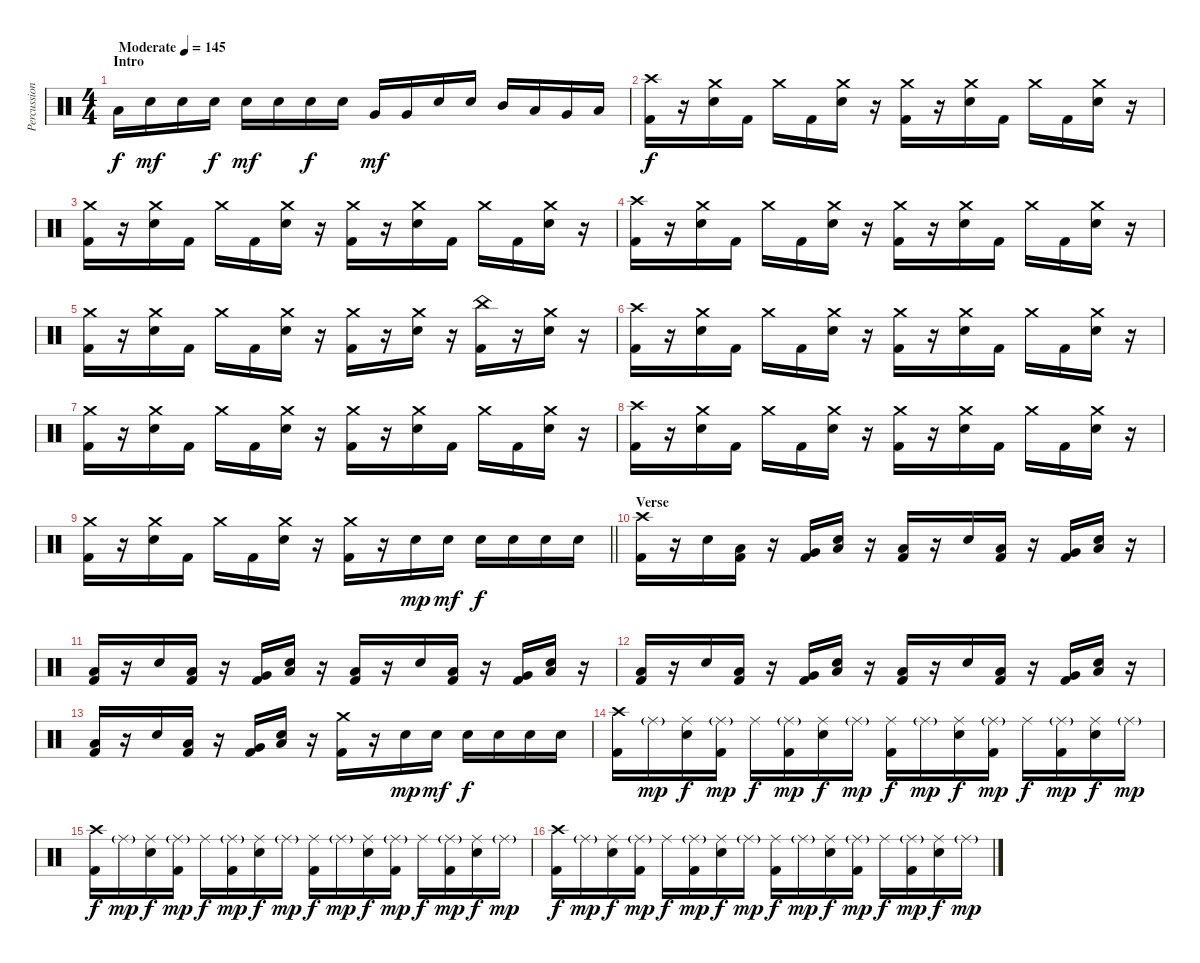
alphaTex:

\track ("Percussion" "Percussion") {instrument percussion}
\staff {score}
\articulation defaults
\ts (4 4)
\section ("" "Intro")
\tempo (145 "Moderate")
\clef neutral
\ks c "Low Floor Tom (hit)".16{dy f} "Electric Snare (hit)".16{dy mf} "Electric Snare (hit)".16 "Electric Snare (hit)".16{dy f} "Electric Snare (hit)".16{dy mf} "Electric Snare (hit)".16 "Electric Snare (hit)".16{dy f} "Electric Snare (hit)".16 "Very Low Tom (hit)".16{dy mf} "Very Low Tom (hit)".16 "Electric Snare (hit)".16 "Electric Snare (hit)".16 "Mid Tom (hit)".16 "Low Tom (hit)".16 "Very Low Tom (hit)".16 "Low Floor Tom (hit)".16
|
("Crash high (hit)" "Kick (hit) 2").16{dy f} r.16 ("Crash medium (hit)" "Electric Snare (hit)").16 "Kick (hit) 2".16 "Crash medium (hit)".16 "Kick (hit) 2".16 ("Crash medium (hit)" "Electric Snare (hit)").16 r.16 ("Crash medium (hit)" "Kick (hit) 2").16 r.16 ("Crash medium (hit)" "Electric Snare (hit)").16 "Kick (hit) 2".16 "Crash medium (hit)".16 "Kick (hit) 2".16 ("Crash medium (hit)" "Electric Snare (hit)").16 r.16 |
("Crash medium (hit)" "Kick (hit) 2").16 r.16 ("Crash medium (hit)" "Electric Snare (hit)").16 "Kick (hit) 2".16 "Crash medium (hit)".16 "Kick (hit) 2".16 ("Crash medium (hit)" "Electric Snare (hit)").16 r.16 ("Crash medium (hit)" "Kick (hit) 2").16 r.16 ("Crash medium (hit)" "Electric Snare (hit)").16 "Kick (hit) 2".16 "Crash medium (hit)".16 "Kick (hit) 2".16 ("Crash medium (hit)" "Electric Snare (hit)").16 r.16 |
("Crash high (hit)" "Kick (hit) 2").16 r.16 ("Crash medium (hit)" "Electric Snare (hit)").16 "Kick (hit) 2".16 "Crash medium (hit)".16 "Kick (hit) 2".16 ("Crash medium (hit)" "Electric Snare (hit)").16 r.16 ("Crash medium (hit)" "Kick (hit) 2").16 r.16 ("Crash medium (hit)" "Electric Snare (hit)").16 "Kick (hit) 2".16 "Crash medium (hit)".16 "Kick (hit) 2".16 ("Crash medium (hit)" "Electric Snare (hit)").16 r.16 |
("Crash medium (hit)" "Kick (hit) 2").16 r.16 ("Crash medium (hit)" "Electric Snare (hit)").16 "Kick (hit) 2".16 "Crash medium (hit)".16 "Kick (hit) 2".16 ("Crash medium (hit)" "Electric Snare (hit)").16 r.16 ("Crash medium (hit)" "Kick (hit) 2").16 r.16 ("Crash medium (hit)" "Electric Snare (hit)").16 r.16 ("China (hit)" "Kick (hit) 2").16 r.16 ("Crash medium (hit)" "Electric Snare (hit)").16 r.16 |
("Crash high (hit)" "Kick (hit) 2").16 r.16 ("Crash medium (hit)" "Electric Snare (hit)").16 "Kick (hit) 2".16 "Crash medium (hit)".16 "Kick (hit) 2".16 ("Crash medium (hit)" "Electric Snare (hit)").16 r.16 ("Crash medium (hit)" "Kick (hit) 2").16 r.16 ("Crash medium (hit)" "Electric Snare (hit)").16 "Kick (hit) 2".16 "Crash medium (hit)".16 "Kick (hit) 2".16 ("Crash medium (hit)" "Electric Snare (hit)").16 r.16 |
("Crash medium (hit)" "Kick (hit) 2").16 r.16 ("Crash medium (hit)" "Electric Snare (hit)").16 "Kick (hit) 2".16 "Crash medium (hit)".16 "Kick (hit) 2".16 ("Crash medium (hit)" "Electric Snare (hit)").16 r.16 ("Crash medium (hit)" "Kick (hit) 2").16 r.16 ("Crash medium (hit)" "Electric Snare (hit)").16 "Kick (hit) 2".16 "Crash medium (hit)".16 "Kick (hit) 2".16 ("Crash medium (hit)" "Electric Snare (hit)").16 r.16 |
("Crash high (hit)" "Kick (hit) 2").16 r.16 ("Crash medium (hit)" "Electric Snare (hit)").16 "Kick (hit) 2".16 "Crash medium (hit)".16 "Kick (hit) 2".16 ("Crash medium (hit)" "Electric Snare (hit)").16 r.16 ("Crash medium (hit)" "Kick (hit) 2").16 r.16 ("Crash medium (hit)" "Electric Snare (hit)").16 "Kick (hit) 2".16 "Crash medium (hit)".16 "Kick (hit) 2".16 ("Crash medium (hit)" "Electric Snare (hit)").16 r.16 |
\barLineRight lightlight
("Crash medium (hit)" "Kick (hit) 2").16 r.16 ("Crash medium (hit)" "Electric Snare (hit)").16 "Kick (hit) 2".16 "Crash medium (hit)".16 "Kick (hit) 2".16 ("Crash medium (hit)" "Electric Snare (hit)").16 r.16 ("Crash medium (hit)" "Kick (hit) 2").16 r.16 "Electric Snare (hit)".16{dy mp} "Electric Snare (hit)".16{dy mf} "Electric Snare (hit)".16{dy f} "Electric Snare (hit)".16 "Electric Snare (hit)".16 "Electric Snare (hit)".16 |
\section ("" "Verse")
("Crash high (hit)" "Kick (hit) 2").16 r.16 "Electric Snare (hit)".16 ("Low Tom (hit)" "Kick (hit) 2").16 r.16 ("Very Low Tom (hit)" "Kick (hit) 2").16 ("Low Floor Tom (hit)" "Electric Snare (hit)").16 r.16 ("Low Floor Tom (hit)" "Kick (hit) 2").16 r.16 "Electric Snare (hit)".16 ("Low Tom (hit)" "Kick (hit) 2").16 r.16 ("Very Low Tom (hit)" "Kick (hit) 2").16 ("Low Floor Tom (hit)" "Electric Snare (hit)").16 r.16 |
("Low Floor Tom (hit)" "Kick (hit) 2").16 r.16 "Electric Snare (hit)".16 ("Low Tom (hit)" "Kick (hit) 2").16 r.16 ("Very Low Tom (hit)" "Kick (hit) 2").16 ("Low Floor Tom (hit)" "Electric Snare (hit)").16 r.16 ("Low Floor Tom (hit)" "Kick (hit) 2").16 r.16 "Electric Snare (hit)".16 ("Low Tom (hit)" "Kick (hit) 2").16 r.16 ("Very Low Tom (hit)" "Kick (hit) 2").16 ("Low Floor Tom (hit)" "Electric Snare (hit)").16 r.16 |
("Low Floor Tom (hit)" "Kick (hit) 2").16 r.16 "Electric Snare (hit)".16 ("Low Tom (hit)" "Kick (hit) 2").16 r.16 ("Very Low Tom (hit)" "Kick (hit) 2").16 ("Low Floor Tom (hit)" "Electric Snare (hit)").16 r.16 ("Low Floor Tom (hit)" "Kick (hit) 2").16 r.16 "Electric Snare (hit)".16 ("Low Tom (hit)" "Kick (hit) 2").16 r.16 ("Very Low Tom (hit)" "Kick (hit) 2").16 ("Low Floor Tom (hit)" "Electric Snare (hit)").16 r.16 |
("Low Floor Tom (hit)" "Kick (hit) 2").16 r.16 "Electric Snare (hit)".16 ("Low Tom (hit)" "Kick (hit) 2").16 r.16 ("Very Low Tom (hit)" "Kick (hit) 2").16 ("Low Floor Tom (hit)" "Electric Snare (hit)").16 r.16 ("Crash medium (hit)" "Kick (hit) 2").16 r.16 "Electric Snare (hit)".16{dy mp} "Electric Snare (hit)".16{dy mf} "Electric Snare (hit)".16{dy f} "Electric Snare (hit)".16 "Electric Snare (hit)".16 "Electric Snare (hit)".16 |
("Crash high (hit)" "Kick (hit) 2").16 "Ride (middle)"{g}.16{dy mp} ("Ride (middle)" "Electric Snare (hit)").16{dy f} ("Ride (middle)"{g} "Kick (hit) 2").16{dy mp} "Ride (middle)".16{dy f} ("Ride (middle)"{g} "Kick (hit) 2").16{dy mp} ("Ride (middle)" "Electric Snare (hit)").16{dy f} "Ride (middle)"{g}.16{dy mp} ("Ride (middle)" "Kick (hit) 2").16{dy f} "Ride (middle)"{g}.16{dy mp} ("Ride (middle)" "Electric Snare (hit)").16{dy f} ("Ride (middle)"{g} "Kick (hit) 2").16{dy mp} "Ride (middle)".16{dy f} ("Ride (middle)"{g} "Kick (hit) 2").16{dy mp} ("Ride (middle)" "Electric Snare (hit)").16{dy f} "Ride (middle)"{g}.16{dy mp} |
("Crash high (hit)" "Kick (hit) 2").16{dy f} "Ride (middle)"{g}.16{dy mp} ("Ride (middle)" "Electric Snare (hit)").16{dy f} ("Ride (middle)"{g} "Kick (hit) 2").16{dy mp} "Ride (middle)".16{dy f} ("Ride (middle)"{g} "Kick (hit) 2").16{dy mp} ("Ride (middle)" "Electric Snare (hit)").16{dy f} "Ride (middle)"{g}.16{dy mp} ("Ride (middle)" "Kick (hit) 2").16{dy f} "Ride (middle)"{g}.16{dy mp} ("Ride (middle)" "Electric Snare (hit)").16{dy f} ("Ride (middle)"{g} "Kick (hit) 2").16{dy mp} "Ride (middle)".16{dy f} ("Ride (middle)"{g} "Kick (hit) 2").16{dy mp} ("Ride (middle)" "Electric Snare (hit)").16{dy f} "Ride (middle)"{g}.16{dy mp} |
("Crash high (hit)" "Kick (hit) 2").16{dy f} "Ride (middle)"{g}.16{dy mp} ("Ride (middle)" "Electric Snare (hit)").16{dy f} ("Ride (middle)"{g} "Kick (hit) 2").16{dy mp} "Ride (middle)".16{dy f} ("Ride (middle)"{g} "Kick (hit) 2").16{dy mp} ("Ride (middle)" "Electric Snare (hit)").16{dy f} "Ride (middle)"{g}.16{dy mp} ("Ride (middle)" "Kick (hit) 2").16{dy f} "Ride (middle)"{g}.16{dy mp} ("Ride (middle)" "Electric Snare (hit)").16{dy f} ("Ride (middle)"{g} "Kick (hit) 2").16{dy mp} "Ride (middle)".16{dy f} ("Ride (middle)"{g} "Kick (hit) 2").16{dy mp} ("Ride (middle)" "Electric Snare (hit)").16{dy f} "Ride (middle)"{g}.16{dy mp}
